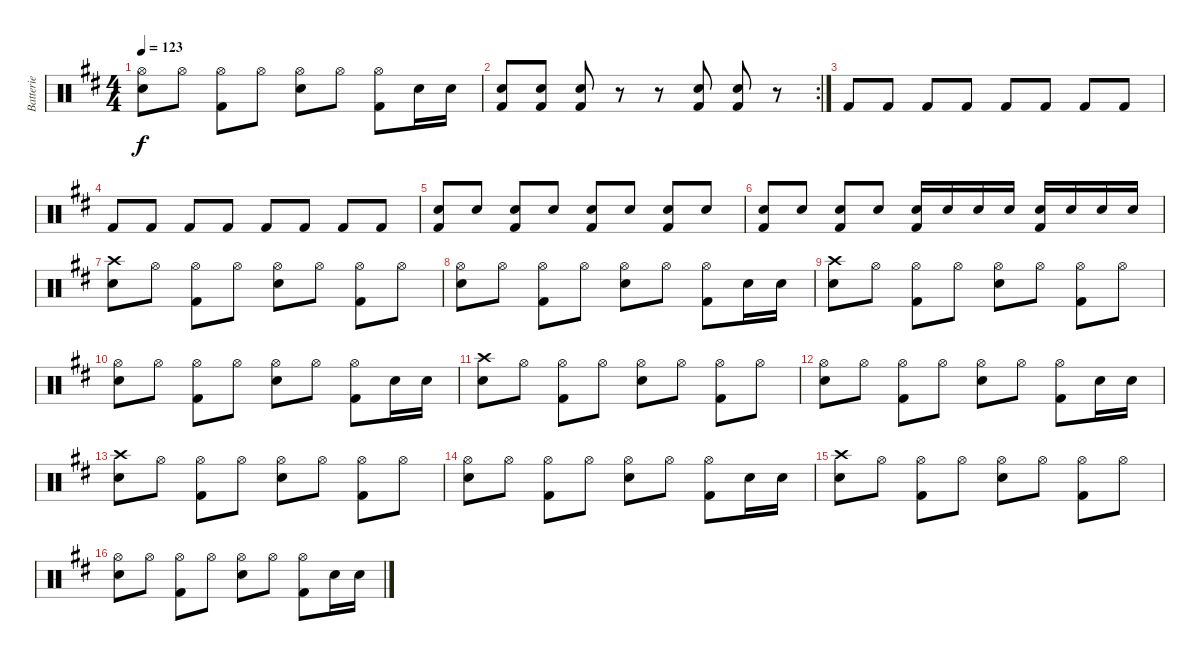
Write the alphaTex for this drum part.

\track ("Batterie" "Batterie") {instrument percussion}
\staff {score}
\articulation defaults
\ts (4 4)
\tempo 123
\clef neutral
\ks d
("Hi-Hat (open)" "Snare (hit) 2").8{dy f} "Hi-Hat (open)".8 ("Hi-Hat (open)" "Kick (hit) 2").8 "Hi-Hat (open)".8 ("Hi-Hat (open)" "Snare (hit) 2").8 "Hi-Hat (open)".8 ("Hi-Hat (open)" "Kick (hit) 2").8 "Snare (hit) 2".16 "Snare (hit) 2".16 |
\rc 2
("Snare (hit) 2" "Kick (hit) 2").8 ("Snare (hit) 2" "Kick (hit) 2").8 ("Snare (hit) 2" "Kick (hit) 2").8 r.8 r.8 ("Snare (hit) 2" "Kick (hit) 2").8 ("Snare (hit) 2" "Kick (hit) 2").8 r.8 |
"Kick (hit) 2".8 "Kick (hit) 2".8 "Kick (hit) 2".8 "Kick (hit) 2".8 "Kick (hit) 2".8 "Kick (hit) 2".8 "Kick (hit) 2".8 "Kick (hit) 2".8 |
"Kick (hit) 2".8 "Kick (hit) 2".8 "Kick (hit) 2".8 "Kick (hit) 2".8 "Kick (hit) 2".8 "Kick (hit) 2".8 "Kick (hit) 2".8 "Kick (hit) 2".8 |
("Snare (hit) 2" "Kick (hit) 2").8 "Snare (hit) 2".8 ("Snare (hit) 2" "Kick (hit) 2").8 "Snare (hit) 2".8 ("Snare (hit) 2" "Kick (hit) 2").8 "Snare (hit) 2".8 ("Snare (hit) 2" "Kick (hit) 2").8 "Snare (hit) 2".8 |
("Snare (hit) 2" "Kick (hit) 2").8 "Snare (hit) 2".8 ("Snare (hit) 2" "Kick (hit) 2").8 "Snare (hit) 2".8 ("Snare (hit) 2" "Kick (hit) 2").16 "Snare (hit) 2".16 "Snare (hit) 2".16 "Snare (hit) 2".16 ("Snare (hit) 2" "Kick (hit) 2").16 "Snare (hit) 2".16 "Snare (hit) 2".16 "Snare (hit) 2".16 |
("Crash high (hit)" "Snare (hit) 2").8 "Hi-Hat (open)".8 ("Hi-Hat (open)" "Kick (hit) 2").8 "Hi-Hat (open)".8 ("Hi-Hat (open)" "Snare (hit) 2").8 "Hi-Hat (open)".8 ("Hi-Hat (open)" "Kick (hit) 2").8 "Hi-Hat (open)".8 |
("Hi-Hat (open)" "Snare (hit) 2").8 "Hi-Hat (open)".8 ("Hi-Hat (open)" "Kick (hit) 2").8 "Hi-Hat (open)".8 ("Hi-Hat (open)" "Snare (hit) 2").8 "Hi-Hat (open)".8 ("Hi-Hat (open)" "Kick (hit) 2").8 "Snare (hit) 2".16 "Snare (hit) 2".16 |
("Crash high (hit)" "Snare (hit) 2").8 "Hi-Hat (open)".8 ("Hi-Hat (open)" "Kick (hit) 2").8 "Hi-Hat (open)".8 ("Hi-Hat (open)" "Snare (hit) 2").8 "Hi-Hat (open)".8 ("Hi-Hat (open)" "Kick (hit) 2").8 "Hi-Hat (open)".8 |
("Hi-Hat (open)" "Snare (hit) 2").8 "Hi-Hat (open)".8 ("Hi-Hat (open)" "Kick (hit) 2").8 "Hi-Hat (open)".8 ("Hi-Hat (open)" "Snare (hit) 2").8 "Hi-Hat (open)".8 ("Hi-Hat (open)" "Kick (hit) 2").8 "Snare (hit) 2".16 "Snare (hit) 2".16 |
("Crash high (hit)" "Snare (hit) 2").8 "Hi-Hat (open)".8 ("Hi-Hat (open)" "Kick (hit) 2").8 "Hi-Hat (open)".8 ("Hi-Hat (open)" "Snare (hit) 2").8 "Hi-Hat (open)".8 ("Hi-Hat (open)" "Kick (hit) 2").8 "Hi-Hat (open)".8 |
("Hi-Hat (open)" "Snare (hit) 2").8 "Hi-Hat (open)".8 ("Hi-Hat (open)" "Kick (hit) 2").8 "Hi-Hat (open)".8 ("Hi-Hat (open)" "Snare (hit) 2").8 "Hi-Hat (open)".8 ("Hi-Hat (open)" "Kick (hit) 2").8 "Snare (hit) 2".16 "Snare (hit) 2".16 |
("Crash high (hit)" "Snare (hit) 2").8 "Hi-Hat (open)".8 ("Hi-Hat (open)" "Kick (hit) 2").8 "Hi-Hat (open)".8 ("Hi-Hat (open)" "Snare (hit) 2").8 "Hi-Hat (open)".8 ("Hi-Hat (open)" "Kick (hit) 2").8 "Hi-Hat (open)".8 |
("Hi-Hat (open)" "Snare (hit) 2").8 "Hi-Hat (open)".8 ("Hi-Hat (open)" "Kick (hit) 2").8 "Hi-Hat (open)".8 ("Hi-Hat (open)" "Snare (hit) 2").8 "Hi-Hat (open)".8 ("Hi-Hat (open)" "Kick (hit) 2").8 "Snare (hit) 2".16 "Snare (hit) 2".16 |
("Crash high (hit)" "Snare (hit) 2").8 "Hi-Hat (open)".8 ("Hi-Hat (open)" "Kick (hit) 2").8 "Hi-Hat (open)".8 ("Hi-Hat (open)" "Snare (hit) 2").8 "Hi-Hat (open)".8 ("Hi-Hat (open)" "Kick (hit) 2").8 "Hi-Hat (open)".8 |
("Hi-Hat (open)" "Snare (hit) 2").8 "Hi-Hat (open)".8 ("Hi-Hat (open)" "Kick (hit) 2").8 "Hi-Hat (open)".8 ("Hi-Hat (open)" "Snare (hit) 2").8 "Hi-Hat (open)".8 ("Hi-Hat (open)" "Kick (hit) 2").8 "Snare (hit) 2".16 "Snare (hit) 2".16
